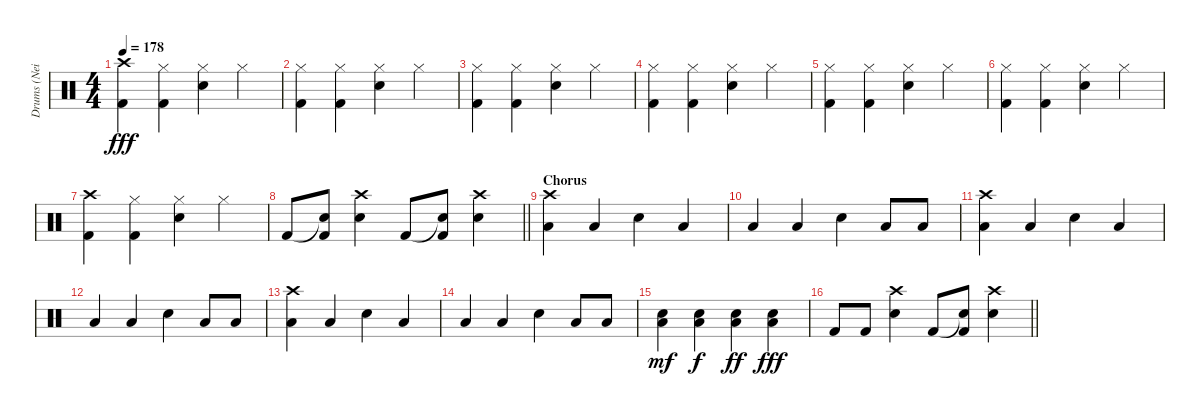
\track ("Drums (Neil Sanderson)" "Drums (Nei") {instrument percussion}
\staff {score}
\articulation defaults
\ts (4 4)
\tempo 178
\clef neutral
\ks c
("Crash high (hit)" "Kick (hit) 2").4{dy fff} ("Hi-Hat (closed)" "Kick (hit) 2").4 ("Hi-Hat (closed)" "Snare (hit) 2").4 "Hi-Hat (closed)".4 |
("Hi-Hat (closed)" "Kick (hit) 2").4 ("Hi-Hat (closed)" "Kick (hit) 2").4 ("Hi-Hat (closed)" "Snare (hit) 2").4 "Hi-Hat (closed)".4 |
("Hi-Hat (closed)" "Kick (hit) 2").4 ("Hi-Hat (closed)" "Kick (hit) 2").4 ("Hi-Hat (closed)" "Snare (hit) 2").4 "Hi-Hat (closed)".4 |
("Hi-Hat (closed)" "Kick (hit) 2").4 ("Hi-Hat (closed)" "Kick (hit) 2").4 ("Hi-Hat (closed)" "Snare (hit) 2").4 "Hi-Hat (closed)".4 |
("Hi-Hat (closed)" "Kick (hit) 2").4 ("Hi-Hat (closed)" "Kick (hit) 2").4 ("Hi-Hat (closed)" "Snare (hit) 2").4 "Hi-Hat (closed)".4 |
("Hi-Hat (closed)" "Kick (hit) 2").4 ("Hi-Hat (closed)" "Kick (hit) 2").4 ("Hi-Hat (closed)" "Snare (hit) 2").4 "Hi-Hat (closed)".4 |
("Crash high (hit)" "Kick (hit) 2").4 ("Hi-Hat (closed)" "Kick (hit) 2").4 ("Hi-Hat (closed)" "Snare (hit) 2").4 "Hi-Hat (closed)".4 |
\barLineRight lightlight "Kick (hit) 2".8
("Snare (hit)"{t} "Kick (hit) 2").8 ("Crash high (hit)" "Snare (hit) 2").4 "Kick (hit) 2".8 ("Snare (hit)"{t} "Kick (hit) 2").8 ("Crash high (hit)" "Snare (hit) 2").4 |
\section ("" "Chorus")
("Crash high (hit)" "Low Floor Tom (hit)").4 "Low Floor Tom (hit)".4 "Snare (hit) 2".4 "Low Floor Tom (hit)".4 |
"Low Floor Tom (hit)".4 "Low Floor Tom (hit)".4 "Snare (hit) 2".4 "Low Floor Tom (hit)".8 "Low Floor Tom (hit)".8 |
("Crash high (hit)" "Low Floor Tom (hit)").4 "Low Floor Tom (hit)".4 "Snare (hit) 2".4 "Low Floor Tom (hit)".4 |
"Low Floor Tom (hit)".4 "Low Floor Tom (hit)".4 "Snare (hit) 2".4 "Low Floor Tom (hit)".8 "Low Floor Tom (hit)".8 |
("Crash high (hit)" "Low Floor Tom (hit)").4 "Low Floor Tom (hit)".4 "Snare (hit) 2".4 "Low Floor Tom (hit)".4 |
"Low Floor Tom (hit)".4 "Low Floor Tom (hit)".4 "Snare (hit) 2".4 "Low Floor Tom (hit)".8 "Low Floor Tom (hit)".8 |
("Snare (hit) 2" "Low Floor Tom (hit)").4{dy mf} ("Snare (hit) 2" "Low Floor Tom (hit)").4{dy f} ("Snare (hit) 2" "Low Floor Tom (hit)").4{dy ff} ("Snare (hit) 2" "Low Floor Tom (hit)").4{dy fff} |
\barLineRight lightlight "Kick (hit) 2".8 "Kick (hit) 2".8
("Crash high (hit)" "Snare (hit) 2").4 "Kick (hit) 2".8 ("Snare (hit)"{t} "Kick (hit) 2").8 ("Crash high (hit)" "Snare (hit) 2").4
